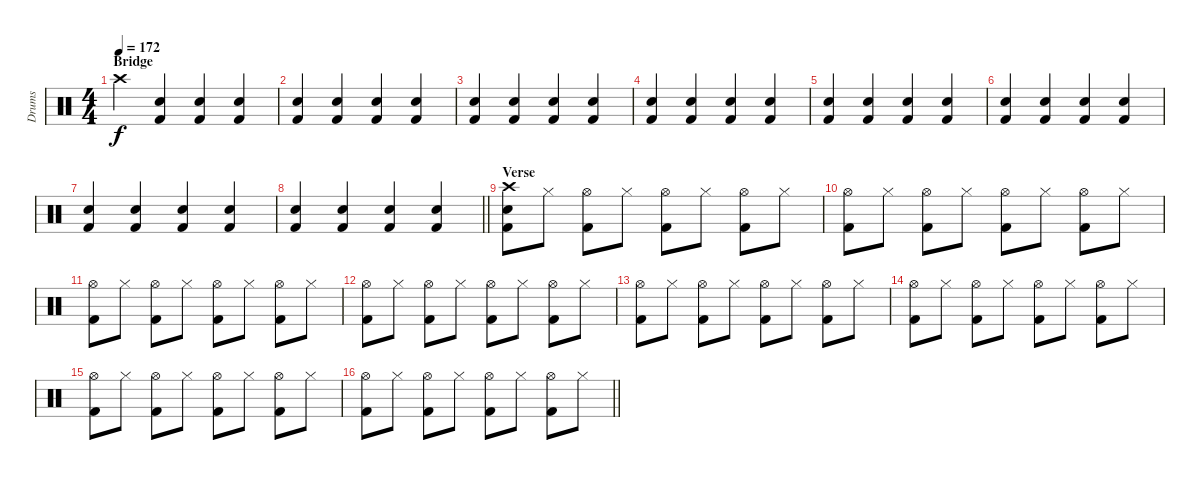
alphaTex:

\track ("Drums" "Drums") {instrument percussion}
\staff {score}
\articulation defaults
\ts (4 4)
\section ("" "Bridge")
\tempo 172
\clef neutral
\ks c "Crash high (hit)".4{dy f}
("Electric Snare (hit)" "Kick (hit) 2").4 ("Electric Snare (hit)" "Kick (hit) 2").4 ("Electric Snare (hit)" "Kick (hit) 2").4 |
("Electric Snare (hit)" "Kick (hit) 2").4 ("Electric Snare (hit)" "Kick (hit) 2").4 ("Electric Snare (hit)" "Kick (hit) 2").4 ("Electric Snare (hit)" "Kick (hit) 2").4 |
("Electric Snare (hit)" "Kick (hit) 2").4 ("Electric Snare (hit)" "Kick (hit) 2").4 ("Electric Snare (hit)" "Kick (hit) 2").4 ("Electric Snare (hit)" "Kick (hit) 2").4 |
("Electric Snare (hit)" "Kick (hit) 2").4 ("Electric Snare (hit)" "Kick (hit) 2").4 ("Electric Snare (hit)" "Kick (hit) 2").4 ("Electric Snare (hit)" "Kick (hit) 2").4 |
("Electric Snare (hit)" "Kick (hit) 2").4 ("Electric Snare (hit)" "Kick (hit) 2").4 ("Electric Snare (hit)" "Kick (hit) 2").4 ("Electric Snare (hit)" "Kick (hit) 2").4 |
("Electric Snare (hit)" "Kick (hit) 2").4 ("Electric Snare (hit)" "Kick (hit) 2").4 ("Electric Snare (hit)" "Kick (hit) 2").4 ("Electric Snare (hit)" "Kick (hit) 2").4 |
("Electric Snare (hit)" "Kick (hit) 2").4 ("Electric Snare (hit)" "Kick (hit) 2").4 ("Electric Snare (hit)" "Kick (hit) 2").4 ("Electric Snare (hit)" "Kick (hit) 2").4 |
\barLineRight lightlight
("Electric Snare (hit)" "Kick (hit) 2").4 ("Electric Snare (hit)" "Kick (hit) 2").4 ("Electric Snare (hit)" "Kick (hit) 2").4 ("Electric Snare (hit)" "Kick (hit) 2").4 |
\section ("" "Verse")
("Kick (hit) 2" "Electric Snare (hit)" "Crash high (hit)").8 "Hi-Hat (closed)".8 ("Hi-Hat (open)" "Kick (hit) 2").8 "Hi-Hat (closed)".8 ("Hi-Hat (open)" "Kick (hit) 2").8 "Hi-Hat (closed)".8 ("Hi-Hat (open)" "Kick (hit) 2").8 "Hi-Hat (closed)".8 |
("Kick (hit) 2" "Hi-Hat (open)").8 "Hi-Hat (closed)".8 ("Hi-Hat (open)" "Kick (hit) 2").8 "Hi-Hat (closed)".8 ("Hi-Hat (open)" "Kick (hit) 2").8 "Hi-Hat (closed)".8 ("Hi-Hat (open)" "Kick (hit) 2").8 "Hi-Hat (closed)".8 |
("Kick (hit) 2" "Hi-Hat (open)").8 "Hi-Hat (closed)".8 ("Hi-Hat (open)" "Kick (hit) 2").8 "Hi-Hat (closed)".8 ("Hi-Hat (open)" "Kick (hit) 2").8 "Hi-Hat (closed)".8 ("Hi-Hat (open)" "Kick (hit) 2").8 "Hi-Hat (closed)".8 |
("Kick (hit) 2" "Hi-Hat (open)").8 "Hi-Hat (closed)".8 ("Hi-Hat (open)" "Kick (hit) 2").8 "Hi-Hat (closed)".8 ("Hi-Hat (open)" "Kick (hit) 2").8 "Hi-Hat (closed)".8 ("Hi-Hat (open)" "Kick (hit) 2").8 "Hi-Hat (closed)".8 |
("Kick (hit) 2" "Hi-Hat (open)").8 "Hi-Hat (closed)".8 ("Hi-Hat (open)" "Kick (hit) 2").8 "Hi-Hat (closed)".8 ("Hi-Hat (open)" "Kick (hit) 2").8 "Hi-Hat (closed)".8 ("Hi-Hat (open)" "Kick (hit) 2").8 "Hi-Hat (closed)".8 |
("Kick (hit) 2" "Hi-Hat (open)").8 "Hi-Hat (closed)".8 ("Hi-Hat (open)" "Kick (hit) 2").8 "Hi-Hat (closed)".8 ("Hi-Hat (open)" "Kick (hit) 2").8 "Hi-Hat (closed)".8 ("Hi-Hat (open)" "Kick (hit) 2").8 "Hi-Hat (closed)".8 |
("Kick (hit) 2" "Hi-Hat (open)").8 "Hi-Hat (closed)".8 ("Hi-Hat (open)" "Kick (hit) 2").8 "Hi-Hat (closed)".8 ("Hi-Hat (open)" "Kick (hit) 2").8 "Hi-Hat (closed)".8 ("Hi-Hat (open)" "Kick (hit) 2").8 "Hi-Hat (closed)".8 |
\barLineRight lightlight
("Kick (hit) 2" "Hi-Hat (open)").8 "Hi-Hat (closed)".8 ("Hi-Hat (open)" "Kick (hit) 2").8 "Hi-Hat (closed)".8 ("Hi-Hat (open)" "Kick (hit) 2").8 "Hi-Hat (closed)".8 ("Hi-Hat (open)" "Kick (hit) 2").8 "Hi-Hat (closed)".8
